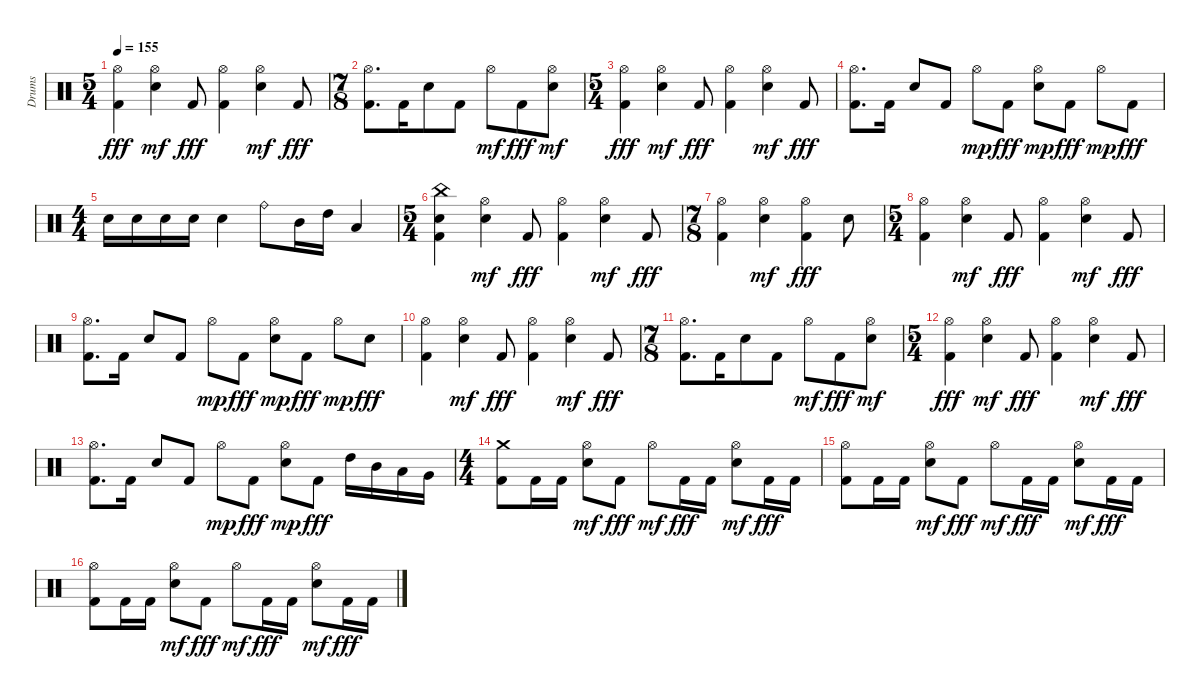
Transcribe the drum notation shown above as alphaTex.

\track ("Drums" "Drums") {instrument percussion}
\staff {score}
\articulation defaults
\ts (5 4)
\tempo 155
\clef neutral
\ks c
("Hi-Hat (open)" "Kick (hit) 2").4{dy fff} ("Electric Snare (hit)" "Hi-Hat (open)").4{dy mf} "Kick (hit) 2".8{dy fff} ("Hi-Hat (open)" "Kick (hit) 2").4 ("Electric Snare (hit)" "Hi-Hat (open)").4{dy mf} "Kick (hit) 2".8{dy fff} |
\ts (7 8)
("Hi-Hat (open)" "Kick (hit) 2").8{d} "Kick (hit) 2".16 "Electric Snare (hit)".8 "Kick (hit) 2".8 "Hi-Hat (open)".8{dy mf} "Kick (hit) 2".8{dy fff} ("Electric Snare (hit)" "Hi-Hat (open)").8{dy mf} |
\ts (5 4)
("Hi-Hat (open)" "Kick (hit) 2").4{dy fff} ("Electric Snare (hit)" "Hi-Hat (open)").4{dy mf} "Kick (hit) 2".8{dy fff} ("Hi-Hat (open)" "Kick (hit) 2").4 ("Electric Snare (hit)" "Hi-Hat (open)").4{dy mf} "Kick (hit) 2".8{dy fff} |
("Hi-Hat (open)" "Kick (hit) 2").8{d} "Kick (hit) 2".16 "Electric Snare (hit)".8 "Kick (hit) 2".8 "Hi-Hat (open)".8{dy mp} "Kick (hit) 2".8{dy fff} ("Electric Snare (hit)" "Hi-Hat (open)").8{dy mp} "Kick (hit) 2".8{dy fff} "Hi-Hat (open)".8{dy mp} "Kick (hit) 2".8{dy fff} |
\ts (4 4)
"Electric Snare (hit)".16 "Electric Snare (hit)".16 "Electric Snare (hit)".16 "Electric Snare (hit)".16 "Electric Snare (hit)".4 "Ride (bell)".8 "Mid Tom (hit)".16 "High Tom (hit)".16 "Low Tom (hit)".4 |
\ts (5 4)
("Electric Snare (hit)" "China (hit)" "Kick (hit) 2").4 ("Electric Snare (hit)" "Hi-Hat (open)").4{dy mf} "Kick (hit) 2".8{dy fff} ("Hi-Hat (open)" "Kick (hit) 2").4 ("Electric Snare (hit)" "Hi-Hat (open)").4{dy mf} "Kick (hit) 2".8{dy fff} |
\ts (7 8)
("Hi-Hat (open)" "Kick (hit) 2").4 ("Electric Snare (hit)" "Hi-Hat (open)").4{dy mf} ("Hi-Hat (open)" "Kick (hit) 2").4{dy fff} "Electric Snare (hit)".8 |
\ts (5 4)
("Hi-Hat (open)" "Kick (hit) 2").4 ("Electric Snare (hit)" "Hi-Hat (open)").4{dy mf} "Kick (hit) 2".8{dy fff} ("Hi-Hat (open)" "Kick (hit) 2").4 ("Electric Snare (hit)" "Hi-Hat (open)").4{dy mf} "Kick (hit) 2".8{dy fff} |
("Hi-Hat (open)" "Kick (hit) 2").8{d} "Kick (hit) 2".16 "Electric Snare (hit)".8 "Kick (hit) 2".8 "Hi-Hat (open)".8{dy mp} "Kick (hit) 2".8{dy fff} ("Electric Snare (hit)" "Hi-Hat (open)").8{dy mp} "Kick (hit) 2".8{dy fff} "Hi-Hat (open)".8{dy mp} "Electric Snare (hit)".8{dy fff} |
("Hi-Hat (open)" "Kick (hit) 2").4 ("Electric Snare (hit)" "Hi-Hat (open)").4{dy mf} "Kick (hit) 2".8{dy fff} ("Hi-Hat (open)" "Kick (hit) 2").4 ("Electric Snare (hit)" "Hi-Hat (open)").4{dy mf} "Kick (hit) 2".8{dy fff} |
\ts (7 8)
("Hi-Hat (open)" "Kick (hit) 2").8{d} "Kick (hit) 2".16 "Electric Snare (hit)".8 "Kick (hit) 2".8 "Hi-Hat (open)".8{dy mf} "Kick (hit) 2".8{dy fff} ("Electric Snare (hit)" "Hi-Hat (open)").8{dy mf} |
\ts (5 4)
("Hi-Hat (open)" "Kick (hit) 2").4{dy fff} ("Electric Snare (hit)" "Hi-Hat (open)").4{dy mf} "Kick (hit) 2".8{dy fff} ("Hi-Hat (open)" "Kick (hit) 2").4 ("Electric Snare (hit)" "Hi-Hat (open)").4{dy mf} "Kick (hit) 2".8{dy fff} |
("Hi-Hat (open)" "Kick (hit) 2").8{d} "Kick (hit) 2".16 "Electric Snare (hit)".8 "Kick (hit) 2".8 "Hi-Hat (open)".8{dy mp} "Kick (hit) 2".8{dy fff} ("Electric Snare (hit)" "Hi-Hat (open)").8{dy mp} "Kick (hit) 2".8{dy fff} "High Tom (hit)".16 "Mid Tom (hit)".16 "Low Tom (hit)".16 "Very Low Tom (hit)".16 |
\ts (4 4)
("Crash medium (hit)" "Kick (hit) 2").8 "Kick (hit) 2".16 "Kick (hit) 2".16 ("Electric Snare (hit)" "Hi-Hat (open)").8{dy mf} "Kick (hit) 2".8{dy fff} "Hi-Hat (open)".8{dy mf} "Kick (hit) 2".16{dy fff} "Kick (hit) 2".16 ("Electric Snare (hit)" "Hi-Hat (open)").8{dy mf} "Kick (hit) 2".16{dy fff} "Kick (hit) 2".16 |
("Hi-Hat (open)" "Kick (hit) 2").8 "Kick (hit) 2".16 "Kick (hit) 2".16 ("Electric Snare (hit)" "Hi-Hat (open)").8{dy mf} "Kick (hit) 2".8{dy fff} "Hi-Hat (open)".8{dy mf} "Kick (hit) 2".16{dy fff} "Kick (hit) 2".16 ("Electric Snare (hit)" "Hi-Hat (open)").8{dy mf} "Kick (hit) 2".16{dy fff} "Kick (hit) 2".16 |
("Hi-Hat (open)" "Kick (hit) 2").8 "Kick (hit) 2".16 "Kick (hit) 2".16 ("Electric Snare (hit)" "Hi-Hat (open)").8{dy mf} "Kick (hit) 2".8{dy fff} "Hi-Hat (open)".8{dy mf} "Kick (hit) 2".16{dy fff} "Kick (hit) 2".16 ("Electric Snare (hit)" "Hi-Hat (open)").8{dy mf} "Kick (hit) 2".16{dy fff} "Kick (hit) 2".16
